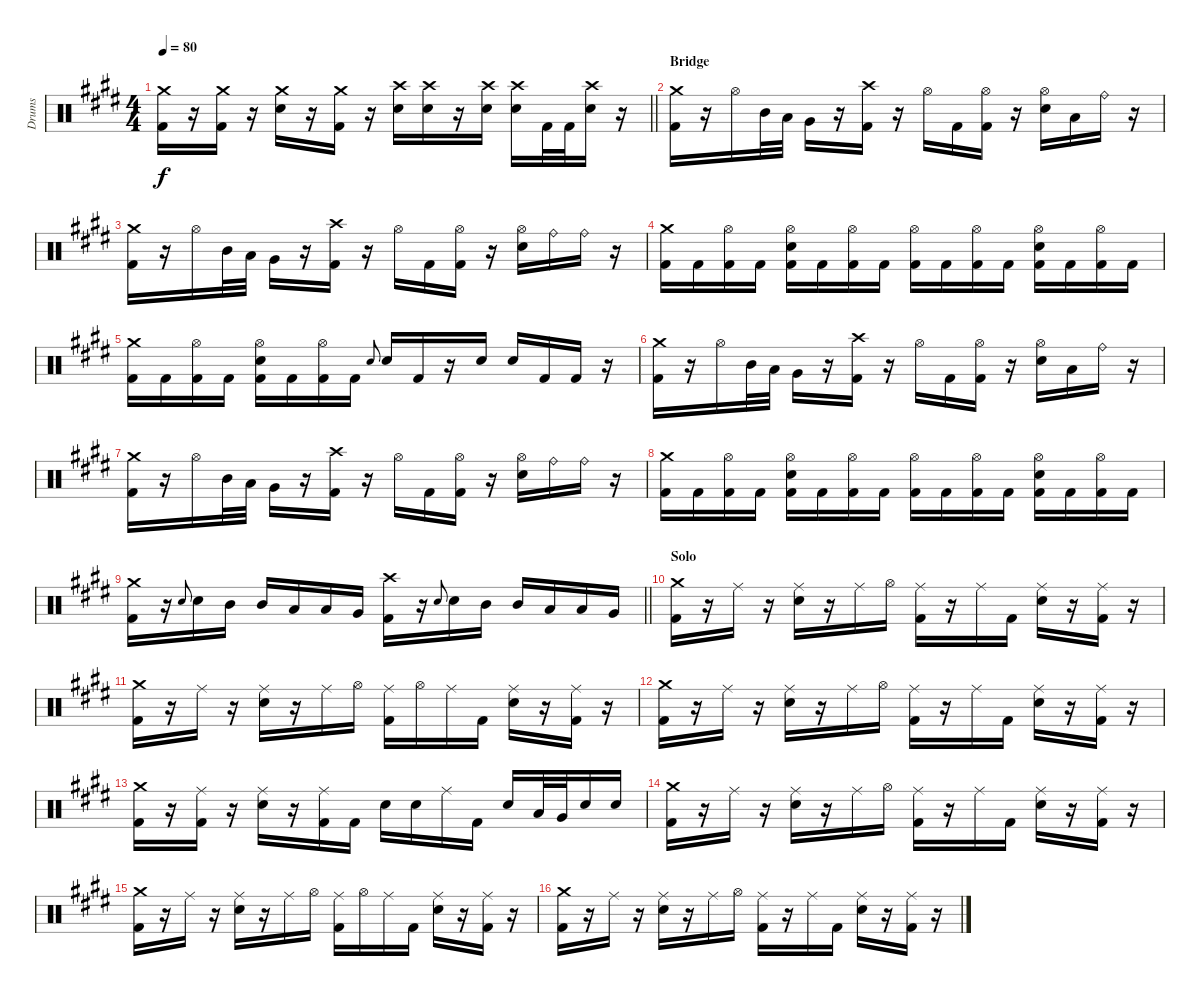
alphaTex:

\track ("Drums" "Drums") {instrument percussion}
\staff {score}
\articulation defaults
\ts (4 4)
\tempo 80
\clef neutral
\barLineRight lightlight
\ks e
("Crash medium (hit)" "Kick (hit) 2").16{dy f} r.16 ("Crash medium (hit)" "Kick (hit) 2").16 r.16 ("Crash medium (hit)" "Snare (hit) 2").16 r.16 ("Crash medium (hit)" "Kick (hit) 2").16 r.16 ("Crash high (hit)" "Snare (hit) 2").16 ("Crash high (hit)" "Snare (hit) 2").16 r.16 ("Crash high (hit)" "Snare (hit) 2").16 ("Crash high (hit)" "Snare (hit) 2").16 "Kick (hit) 2".32 "Kick (hit) 2".32 ("Crash high (hit)" "Snare (hit) 2").16 r.16 |
\section ("" "Bridge")
("Crash medium (hit)" "Kick (hit) 2").16 r.16 "Hi-Hat (open)".16 "Mid Tom (hit)".32 "Low Tom (hit)".32 "Very Low Tom (hit)".16 r.16 ("Crash high (hit)" "Kick (hit) 2").16 r.16 "Hi-Hat (open)".16 "Kick (hit) 2".16 ("Hi-Hat (open)" "Kick (hit) 2").16 r.16 ("Hi-Hat (open)" "Snare (hit) 2").16 "Low Tom (hit)".16 "Ride (bell)".16 r.16 |
("Crash medium (hit)" "Kick (hit) 2").16 r.16 "Hi-Hat (open)".16 "Mid Tom (hit)".32 "Low Tom (hit)".32 "Very Low Tom (hit)".16 r.16 ("Crash high (hit)" "Kick (hit) 2").16 r.16 "Hi-Hat (open)".16 "Kick (hit) 2".16 ("Hi-Hat (open)" "Kick (hit) 2").16 r.16 ("Hi-Hat (open)" "Snare (hit) 2").16 "Ride (bell)".16 "Ride (bell)".16 r.16 |
("Crash medium (hit)" "Kick (hit) 2").16 "Kick (hit) 2".16 ("Hi-Hat (open)" "Kick (hit) 2").16 "Kick (hit) 2".16 ("Hi-Hat (open)" "Snare (hit) 2" "Kick (hit) 2").16 "Kick (hit) 2".16 ("Hi-Hat (open)" "Kick (hit) 2").16 "Kick (hit) 2".16 ("Hi-Hat (open)" "Kick (hit) 2").16 "Kick (hit) 2".16 ("Hi-Hat (open)" "Kick (hit) 2").16 "Kick (hit) 2".16 ("Hi-Hat (open)" "Snare (hit) 2" "Kick (hit) 2").16 "Kick (hit) 2".16 ("Hi-Hat (open)" "Kick (hit) 2").16 "Kick (hit) 2".16 |
("Crash medium (hit)" "Kick (hit) 2").16 "Kick (hit) 2".16 ("Hi-Hat (open)" "Kick (hit) 2").16 "Kick (hit) 2".16 ("Hi-Hat (open)" "Snare (hit) 2" "Kick (hit) 2").16 "Kick (hit) 2".16 ("Hi-Hat (open)" "Kick (hit) 2").16 "Kick (hit) 2".16 "Snare (hit) 2".8{gr onbeat} "Snare (hit) 2".16 "Kick (hit) 2".16 r.16 "Snare (hit) 2".16 "Snare (hit) 2".16 "Kick (hit) 2".16 "Kick (hit) 2".16 r.16 |
("Crash medium (hit)" "Kick (hit) 2").16 r.16 "Hi-Hat (open)".16 "Mid Tom (hit)".32 "Low Tom (hit)".32 "Very Low Tom (hit)".16 r.16 ("Crash high (hit)" "Kick (hit) 2").16 r.16 "Hi-Hat (open)".16 "Kick (hit) 2".16 ("Hi-Hat (open)" "Kick (hit) 2").16 r.16 ("Hi-Hat (open)" "Snare (hit) 2").16 "Low Tom (hit)".16 "Ride (bell)".16 r.16 |
("Crash medium (hit)" "Kick (hit) 2").16 r.16 "Hi-Hat (open)".16 "Mid Tom (hit)".32 "Low Tom (hit)".32 "Very Low Tom (hit)".16 r.16 ("Crash high (hit)" "Kick (hit) 2").16 r.16 "Hi-Hat (open)".16 "Kick (hit) 2".16 ("Hi-Hat (open)" "Kick (hit) 2").16 r.16 ("Hi-Hat (open)" "Snare (hit) 2").16 "Ride (bell)".16 "Ride (bell)".16 r.16 |
("Crash medium (hit)" "Kick (hit) 2").16 "Kick (hit) 2".16 ("Hi-Hat (open)" "Kick (hit) 2").16 "Kick (hit) 2".16 ("Hi-Hat (open)" "Snare (hit) 2" "Kick (hit) 2").16 "Kick (hit) 2".16 ("Hi-Hat (open)" "Kick (hit) 2").16 "Kick (hit) 2".16 ("Hi-Hat (open)" "Kick (hit) 2").16 "Kick (hit) 2".16 ("Hi-Hat (open)" "Kick (hit) 2").16 "Kick (hit) 2".16 ("Hi-Hat (open)" "Snare (hit) 2" "Kick (hit) 2").16 "Kick (hit) 2".16 ("Hi-Hat (open)" "Kick (hit) 2").16 "Kick (hit) 2".16 |
\barLineRight lightlight
("Crash medium (hit)" "Kick (hit) 2").16 r.16 "Snare (hit) 2".8{gr onbeat} "Snare (hit) 2".16 "Mid Tom (hit)".16 "Mid Tom (hit)".16 "Low Tom (hit)".16 "Low Tom (hit)".16 "Very Low Tom (hit)".16 ("Crash high (hit)" "Kick (hit) 2").16 r.16 "Snare (hit) 2".8{gr onbeat} "Snare (hit) 2".16 "Mid Tom (hit)".16 "Mid Tom (hit)".16 "Low Tom (hit)".16 "Low Tom (hit)".16 "Very Low Tom (hit)".16 |
\section ("" "Solo")
("Crash medium (hit)" "Kick (hit) 2").16 r.16 "Ride (middle)".16 r.16 ("Ride (middle)" "Snare (hit) 2").16 r.16 "Ride (middle)".16 "Hi-Hat (open)".16 ("Ride (middle)" "Kick (hit) 2").16 r.16 "Ride (middle)".16 "Kick (hit) 2".16 ("Ride (middle)" "Snare (hit) 2").16 r.16 ("Ride (middle)" "Kick (hit) 2").16 r.16 |
("Crash medium (hit)" "Kick (hit) 2").16 r.16 "Ride (middle)".16 r.16 ("Ride (middle)" "Snare (hit) 2").16 r.16 "Ride (middle)".16 "Hi-Hat (open)".16 ("Ride (middle)" "Kick (hit) 2").16 "Hi-Hat (open)".16 "Ride (middle)".16 "Kick (hit) 2".16 ("Ride (middle)" "Snare (hit) 2").16 r.16 ("Ride (middle)" "Kick (hit) 2").16 r.16 |
("Crash medium (hit)" "Kick (hit) 2").16 r.16 "Ride (middle)".16 r.16 ("Ride (middle)" "Snare (hit) 2").16 r.16 "Ride (middle)".16 "Hi-Hat (open)".16 ("Ride (middle)" "Kick (hit) 2").16 r.16 "Ride (middle)".16 "Kick (hit) 2".16 ("Ride (middle)" "Snare (hit) 2").16 r.16 ("Ride (middle)" "Kick (hit) 2").16 r.16 |
("Crash medium (hit)" "Kick (hit) 2").16 r.16 ("Ride (middle)" "Kick (hit) 2").16 r.16 ("Ride (middle)" "Snare (hit) 2").16 r.16 ("Ride (middle)" "Kick (hit) 2").16 "Kick (hit) 2".16 "Snare (hit) 2".16 "Snare (hit) 2".16 "Ride (middle)".16 "Kick (hit) 2".16 "Snare (hit) 2".16 "Low Tom (hit)".32 "Very Low Tom (hit)".32 "Snare (hit) 2".16 "Snare (hit) 2".16 |
("Crash medium (hit)" "Kick (hit) 2").16 r.16 "Ride (middle)".16 r.16 ("Ride (middle)" "Snare (hit) 2").16 r.16 "Ride (middle)".16 "Hi-Hat (open)".16 ("Ride (middle)" "Kick (hit) 2").16 r.16 "Ride (middle)".16 "Kick (hit) 2".16 ("Ride (middle)" "Snare (hit) 2").16 r.16 ("Ride (middle)" "Kick (hit) 2").16 r.16 |
("Crash medium (hit)" "Kick (hit) 2").16 r.16 "Ride (middle)".16 r.16 ("Ride (middle)" "Snare (hit) 2").16 r.16 "Ride (middle)".16 "Hi-Hat (open)".16 ("Ride (middle)" "Kick (hit) 2").16 "Hi-Hat (open)".16 "Ride (middle)".16 "Kick (hit) 2".16 ("Ride (middle)" "Snare (hit) 2").16 r.16 ("Ride (middle)" "Kick (hit) 2").16 r.16 |
("Crash medium (hit)" "Kick (hit) 2").16 r.16 "Ride (middle)".16 r.16 ("Ride (middle)" "Snare (hit) 2").16 r.16 "Ride (middle)".16 "Hi-Hat (open)".16 ("Ride (middle)" "Kick (hit) 2").16 r.16 "Ride (middle)".16 "Kick (hit) 2".16 ("Ride (middle)" "Snare (hit) 2").16 r.16 ("Ride (middle)" "Kick (hit) 2").16 r.16
